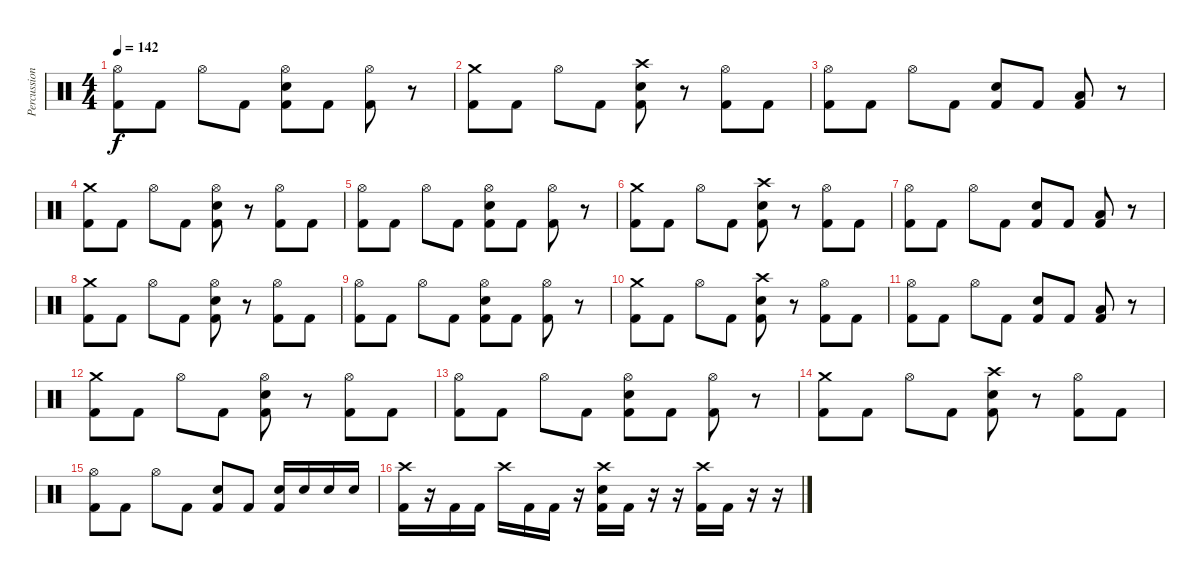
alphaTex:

\track ("Percussion" "Percussion") {instrument percussion}
\staff {score}
\articulation defaults
\ts (4 4)
\tempo 142
\clef neutral
\ks c
("Hi-Hat (open)" "Kick (hit) 2").8{dy f} "Kick (hit) 2".8 "Hi-Hat (open)".8 "Kick (hit) 2".8 ("Hi-Hat (open)" "Snare (hit) 2" "Kick (hit) 2").8 "Kick (hit) 2".8 ("Hi-Hat (open)" "Kick (hit) 2").8 r.8 |
("Crash medium (hit)" "Kick (hit) 2").8 "Kick (hit) 2".8 "Hi-Hat (open)".8 "Kick (hit) 2".8 ("Crash high (hit)" "Snare (hit) 2" "Kick (hit) 2").8 r.8 ("Hi-Hat (open)" "Kick (hit) 2").8 "Kick (hit) 2".8 |
("Hi-Hat (open)" "Kick (hit) 2").8 "Kick (hit) 2".8 "Hi-Hat (open)".8 "Kick (hit) 2".8 ("Snare (hit) 2" "Kick (hit) 2").8 "Kick (hit) 2".8 ("Low Floor Tom (hit)" "Kick (hit) 2").8 r.8 |
("Crash medium (hit)" "Kick (hit) 2").8 "Kick (hit) 2".8 "Hi-Hat (open)".8 "Kick (hit) 2".8 ("Hi-Hat (open)" "Snare (hit) 2" "Kick (hit) 2").8 r.8 ("Hi-Hat (open)" "Kick (hit) 2").8 "Kick (hit) 2".8 |
("Hi-Hat (open)" "Kick (hit) 2").8 "Kick (hit) 2".8 "Hi-Hat (open)".8 "Kick (hit) 2".8 ("Hi-Hat (open)" "Snare (hit) 2" "Kick (hit) 2").8 "Kick (hit) 2".8 ("Hi-Hat (open)" "Kick (hit) 2").8 r.8 |
("Crash medium (hit)" "Kick (hit) 2").8 "Kick (hit) 2".8 "Hi-Hat (open)".8 "Kick (hit) 2".8 ("Crash high (hit)" "Snare (hit) 2" "Kick (hit) 2").8 r.8 ("Hi-Hat (open)" "Kick (hit) 2").8 "Kick (hit) 2".8 |
("Hi-Hat (open)" "Kick (hit) 2").8 "Kick (hit) 2".8 "Hi-Hat (open)".8 "Kick (hit) 2".8 ("Snare (hit) 2" "Kick (hit) 2").8 "Kick (hit) 2".8 ("Low Floor Tom (hit)" "Kick (hit) 2").8 r.8 |
("Crash medium (hit)" "Kick (hit) 2").8 "Kick (hit) 2".8 "Hi-Hat (open)".8 "Kick (hit) 2".8 ("Hi-Hat (open)" "Snare (hit) 2" "Kick (hit) 2").8 r.8 ("Hi-Hat (open)" "Kick (hit) 2").8 "Kick (hit) 2".8 |
("Hi-Hat (open)" "Kick (hit) 2").8 "Kick (hit) 2".8 "Hi-Hat (open)".8 "Kick (hit) 2".8 ("Hi-Hat (open)" "Snare (hit) 2" "Kick (hit) 2").8 "Kick (hit) 2".8 ("Hi-Hat (open)" "Kick (hit) 2").8 r.8 |
("Crash medium (hit)" "Kick (hit) 2").8 "Kick (hit) 2".8 "Hi-Hat (open)".8 "Kick (hit) 2".8 ("Crash high (hit)" "Snare (hit) 2" "Kick (hit) 2").8 r.8 ("Hi-Hat (open)" "Kick (hit) 2").8 "Kick (hit) 2".8 |
("Hi-Hat (open)" "Kick (hit) 2").8 "Kick (hit) 2".8 "Hi-Hat (open)".8 "Kick (hit) 2".8 ("Snare (hit) 2" "Kick (hit) 2").8 "Kick (hit) 2".8 ("Low Floor Tom (hit)" "Kick (hit) 2").8 r.8 |
("Crash medium (hit)" "Kick (hit) 2").8 "Kick (hit) 2".8 "Hi-Hat (open)".8 "Kick (hit) 2".8 ("Hi-Hat (open)" "Snare (hit) 2" "Kick (hit) 2").8 r.8 ("Hi-Hat (open)" "Kick (hit) 2").8 "Kick (hit) 2".8 |
("Hi-Hat (open)" "Kick (hit) 2").8 "Kick (hit) 2".8 "Hi-Hat (open)".8 "Kick (hit) 2".8 ("Hi-Hat (open)" "Snare (hit) 2" "Kick (hit) 2").8 "Kick (hit) 2".8 ("Hi-Hat (open)" "Kick (hit) 2").8 r.8 |
("Crash medium (hit)" "Kick (hit) 2").8 "Kick (hit) 2".8 "Hi-Hat (open)".8 "Kick (hit) 2".8 ("Crash high (hit)" "Snare (hit) 2" "Kick (hit) 2").8 r.8 ("Hi-Hat (open)" "Kick (hit) 2").8 "Kick (hit) 2".8 |
("Hi-Hat (open)" "Kick (hit) 2").8 "Kick (hit) 2".8 "Hi-Hat (open)".8 "Kick (hit) 2".8 ("Snare (hit) 2" "Kick (hit) 2").8 "Kick (hit) 2".8 ("Snare (hit) 2" "Kick (hit) 2").16 "Snare (hit) 2".16 "Snare (hit) 2".16 "Snare (hit) 2".16 |
("Crash high (hit)" "Kick (hit) 2").16 r.16 "Kick (hit) 2".16 "Kick (hit) 2".16 "Crash high (hit)".16 "Kick (hit) 2".16 "Kick (hit) 2".16 r.16 ("Crash high (hit)" "Snare (hit) 2" "Kick (hit) 2").16 "Kick (hit) 2".16 r.16 r.16 ("Crash high (hit)" "Kick (hit) 2").16 "Kick (hit) 2".16 r.16 r.16
